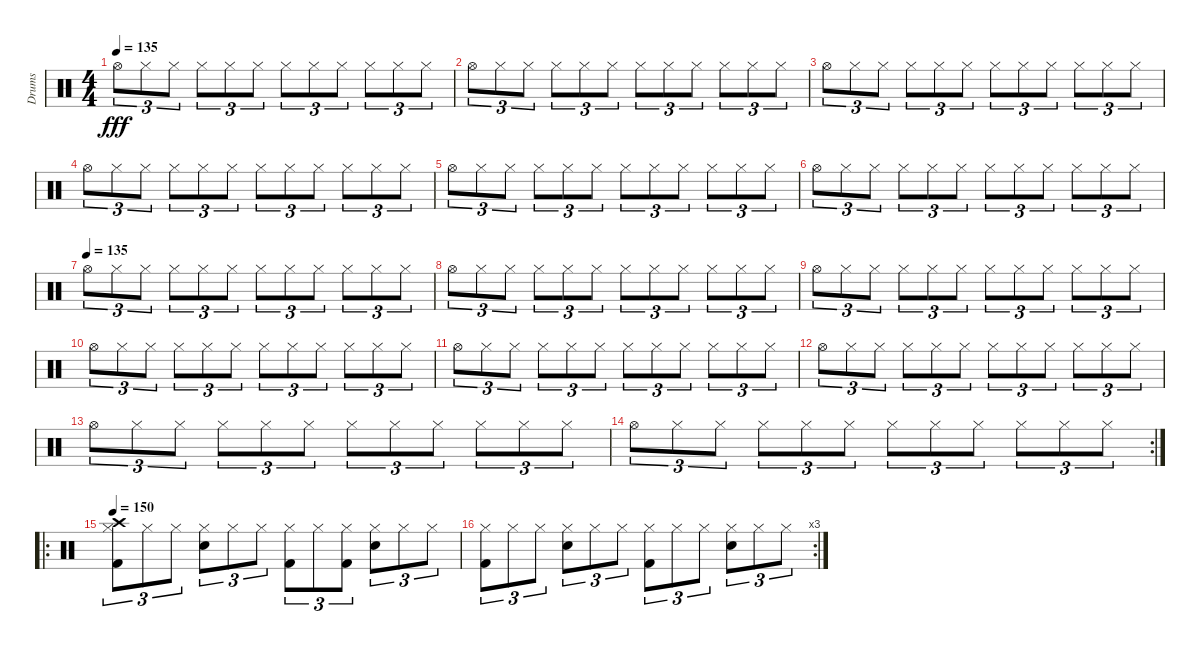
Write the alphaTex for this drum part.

\track ("Drums" "Drums") {instrument percussion}
\staff {score}
\articulation defaults
\ts (4 4)
\tempo 135
\clef neutral
\ks c "Hi-Hat (open)".8{tu (3 2) dy fff} "Hi-Hat (closed)".8{tu (3 2)} "Hi-Hat (closed)".8{tu (3 2)} "Hi-Hat (closed)".8{tu (3 2)} "Hi-Hat (closed)".8{tu (3 2)} "Hi-Hat (closed)".8{tu (3 2)} "Hi-Hat (closed)".8{tu (3 2)} "Hi-Hat (closed)".8{tu (3 2)} "Hi-Hat (closed)".8{tu (3 2)} "Hi-Hat (closed)".8{tu (3 2)} "Hi-Hat (closed)".8{tu (3 2)} "Hi-Hat (closed)".8{tu (3 2)}
|
"Hi-Hat (open)".8{tu (3 2)} "Hi-Hat (closed)".8{tu (3 2)} "Hi-Hat (closed)".8{tu (3 2)} "Hi-Hat (closed)".8{tu (3 2)} "Hi-Hat (closed)".8{tu (3 2)} "Hi-Hat (closed)".8{tu (3 2)} "Hi-Hat (closed)".8{tu (3 2)} "Hi-Hat (closed)".8{tu (3 2)} "Hi-Hat (closed)".8{tu (3 2)} "Hi-Hat (closed)".8{tu (3 2)} "Hi-Hat (closed)".8{tu (3 2)} "Hi-Hat (closed)".8{tu (3 2)} |
"Hi-Hat (open)".8{tu (3 2)} "Hi-Hat (closed)".8{tu (3 2)} "Hi-Hat (closed)".8{tu (3 2)} "Hi-Hat (closed)".8{tu (3 2)} "Hi-Hat (closed)".8{tu (3 2)} "Hi-Hat (closed)".8{tu (3 2)} "Hi-Hat (closed)".8{tu (3 2)} "Hi-Hat (closed)".8{tu (3 2)} "Hi-Hat (closed)".8{tu (3 2)} "Hi-Hat (closed)".8{tu (3 2)} "Hi-Hat (closed)".8{tu (3 2)} "Hi-Hat (closed)".8{tu (3 2)} |
"Hi-Hat (open)".8{tu (3 2)} "Hi-Hat (closed)".8{tu (3 2)} "Hi-Hat (closed)".8{tu (3 2)} "Hi-Hat (closed)".8{tu (3 2)} "Hi-Hat (closed)".8{tu (3 2)} "Hi-Hat (closed)".8{tu (3 2)} "Hi-Hat (closed)".8{tu (3 2)} "Hi-Hat (closed)".8{tu (3 2)} "Hi-Hat (closed)".8{tu (3 2)} "Hi-Hat (closed)".8{tu (3 2)} "Hi-Hat (closed)".8{tu (3 2)} "Hi-Hat (closed)".8{tu (3 2)} |
"Hi-Hat (open)".8{tu (3 2)} "Hi-Hat (closed)".8{tu (3 2)} "Hi-Hat (closed)".8{tu (3 2)} "Hi-Hat (closed)".8{tu (3 2)} "Hi-Hat (closed)".8{tu (3 2)} "Hi-Hat (closed)".8{tu (3 2)} "Hi-Hat (closed)".8{tu (3 2)} "Hi-Hat (closed)".8{tu (3 2)} "Hi-Hat (closed)".8{tu (3 2)} "Hi-Hat (closed)".8{tu (3 2)} "Hi-Hat (closed)".8{tu (3 2)} "Hi-Hat (closed)".8{tu (3 2)} |
"Hi-Hat (open)".8{tu (3 2)} "Hi-Hat (closed)".8{tu (3 2)} "Hi-Hat (closed)".8{tu (3 2)} "Hi-Hat (closed)".8{tu (3 2)} "Hi-Hat (closed)".8{tu (3 2)} "Hi-Hat (closed)".8{tu (3 2)} "Hi-Hat (closed)".8{tu (3 2)} "Hi-Hat (closed)".8{tu (3 2)} "Hi-Hat (closed)".8{tu (3 2)} "Hi-Hat (closed)".8{tu (3 2)} "Hi-Hat (closed)".8{tu (3 2)} "Hi-Hat (closed)".8{tu (3 2)} |
\tempo (135)
"Hi-Hat (open)".8{tu (3 2)} "Hi-Hat (closed)".8{tu (3 2)} "Hi-Hat (closed)".8{tu (3 2)} "Hi-Hat (closed)".8{tu (3 2)} "Hi-Hat (closed)".8{tu (3 2)} "Hi-Hat (closed)".8{tu (3 2)} "Hi-Hat (closed)".8{tu (3 2)} "Hi-Hat (closed)".8{tu (3 2)} "Hi-Hat (closed)".8{tu (3 2)} "Hi-Hat (closed)".8{tu (3 2)} "Hi-Hat (closed)".8{tu (3 2)} "Hi-Hat (closed)".8{tu (3 2)} |
"Hi-Hat (open)".8{tu (3 2)} "Hi-Hat (closed)".8{tu (3 2)} "Hi-Hat (closed)".8{tu (3 2)} "Hi-Hat (closed)".8{tu (3 2)} "Hi-Hat (closed)".8{tu (3 2)} "Hi-Hat (closed)".8{tu (3 2)} "Hi-Hat (closed)".8{tu (3 2)} "Hi-Hat (closed)".8{tu (3 2)} "Hi-Hat (closed)".8{tu (3 2)} "Hi-Hat (closed)".8{tu (3 2)} "Hi-Hat (closed)".8{tu (3 2)} "Hi-Hat (closed)".8{tu (3 2)} |
"Hi-Hat (open)".8{tu (3 2)} "Hi-Hat (closed)".8{tu (3 2)} "Hi-Hat (closed)".8{tu (3 2)} "Hi-Hat (closed)".8{tu (3 2)} "Hi-Hat (closed)".8{tu (3 2)} "Hi-Hat (closed)".8{tu (3 2)} "Hi-Hat (closed)".8{tu (3 2)} "Hi-Hat (closed)".8{tu (3 2)} "Hi-Hat (closed)".8{tu (3 2)} "Hi-Hat (closed)".8{tu (3 2)} "Hi-Hat (closed)".8{tu (3 2)} "Hi-Hat (closed)".8{tu (3 2)} |
"Hi-Hat (open)".8{tu (3 2)} "Hi-Hat (closed)".8{tu (3 2)} "Hi-Hat (closed)".8{tu (3 2)} "Hi-Hat (closed)".8{tu (3 2)} "Hi-Hat (closed)".8{tu (3 2)} "Hi-Hat (closed)".8{tu (3 2)} "Hi-Hat (closed)".8{tu (3 2)} "Hi-Hat (closed)".8{tu (3 2)} "Hi-Hat (closed)".8{tu (3 2)} "Hi-Hat (closed)".8{tu (3 2)} "Hi-Hat (closed)".8{tu (3 2)} "Hi-Hat (closed)".8{tu (3 2)} |
"Hi-Hat (open)".8{tu (3 2)} "Hi-Hat (closed)".8{tu (3 2)} "Hi-Hat (closed)".8{tu (3 2)} "Hi-Hat (closed)".8{tu (3 2)} "Hi-Hat (closed)".8{tu (3 2)} "Hi-Hat (closed)".8{tu (3 2)} "Hi-Hat (closed)".8{tu (3 2)} "Hi-Hat (closed)".8{tu (3 2)} "Hi-Hat (closed)".8{tu (3 2)} "Hi-Hat (closed)".8{tu (3 2)} "Hi-Hat (closed)".8{tu (3 2)} "Hi-Hat (closed)".8{tu (3 2)} |
"Hi-Hat (open)".8{tu (3 2)} "Hi-Hat (closed)".8{tu (3 2)} "Hi-Hat (closed)".8{tu (3 2)} "Hi-Hat (closed)".8{tu (3 2)} "Hi-Hat (closed)".8{tu (3 2)} "Hi-Hat (closed)".8{tu (3 2)} "Hi-Hat (closed)".8{tu (3 2)} "Hi-Hat (closed)".8{tu (3 2)} "Hi-Hat (closed)".8{tu (3 2)} "Hi-Hat (closed)".8{tu (3 2)} "Hi-Hat (closed)".8{tu (3 2)} "Hi-Hat (closed)".8{tu (3 2)} |
"Hi-Hat (open)".8{tu (3 2)} "Hi-Hat (closed)".8{tu (3 2)} "Hi-Hat (closed)".8{tu (3 2)} "Hi-Hat (closed)".8{tu (3 2)} "Hi-Hat (closed)".8{tu (3 2)} "Hi-Hat (closed)".8{tu (3 2)} "Hi-Hat (closed)".8{tu (3 2)} "Hi-Hat (closed)".8{tu (3 2)} "Hi-Hat (closed)".8{tu (3 2)} "Hi-Hat (closed)".8{tu (3 2)} "Hi-Hat (closed)".8{tu (3 2)} "Hi-Hat (closed)".8{tu (3 2)} |
\rc 2 "Hi-Hat (open)".8{tu (3 2)} "Hi-Hat (closed)".8{tu (3 2)} "Hi-Hat (closed)".8{tu (3 2)} "Hi-Hat (closed)".8{tu (3 2)} "Hi-Hat (closed)".8{tu (3 2)} "Hi-Hat (closed)".8{tu (3 2)} "Hi-Hat (closed)".8{tu (3 2)} "Hi-Hat (closed)".8{tu (3 2)} "Hi-Hat (closed)".8{tu (3 2)} "Hi-Hat (closed)".8{tu (3 2)} "Hi-Hat (closed)".8{tu (3 2)} "Hi-Hat (closed)".8{tu (3 2)}
|
\ro
\tempo 150
("Hi-Hat (closed)" "Kick (hit) 2" "Crash high (hit)").8{tu (3 2)} "Hi-Hat (closed)".8{tu (3 2)} "Hi-Hat (closed)".8{tu (3 2)} ("Hi-Hat (closed)" "Snare (hit) 2").8{tu (3 2)} "Hi-Hat (closed)".8{tu (3 2)} "Hi-Hat (closed)".8{tu (3 2)} ("Hi-Hat (closed)" "Kick (hit) 2").8{tu (3 2)} "Hi-Hat (closed)".8{tu (3 2)} ("Hi-Hat (closed)" "Kick (hit) 2").8{tu (3 2)} ("Hi-Hat (closed)" "Snare (hit) 2").8{tu (3 2)} "Hi-Hat (closed)".8{tu (3 2)} "Hi-Hat (closed)".8{tu (3 2)} |
\rc 3
("Hi-Hat (closed)" "Kick (hit) 2").8{tu (3 2)} "Hi-Hat (closed)".8{tu (3 2)} "Hi-Hat (closed)".8{tu (3 2)} ("Hi-Hat (closed)" "Snare (hit) 2").8{tu (3 2)} "Hi-Hat (closed)".8{tu (3 2)} "Hi-Hat (closed)".8{tu (3 2)} ("Hi-Hat (closed)" "Kick (hit) 2").8{tu (3 2)} "Hi-Hat (closed)".8{tu (3 2)} "Hi-Hat (closed)".8{tu (3 2)} ("Hi-Hat (closed)" "Snare (hit) 2").8{tu (3 2)} "Hi-Hat (closed)".8{tu (3 2)} "Hi-Hat (closed)".8{tu (3 2)}
